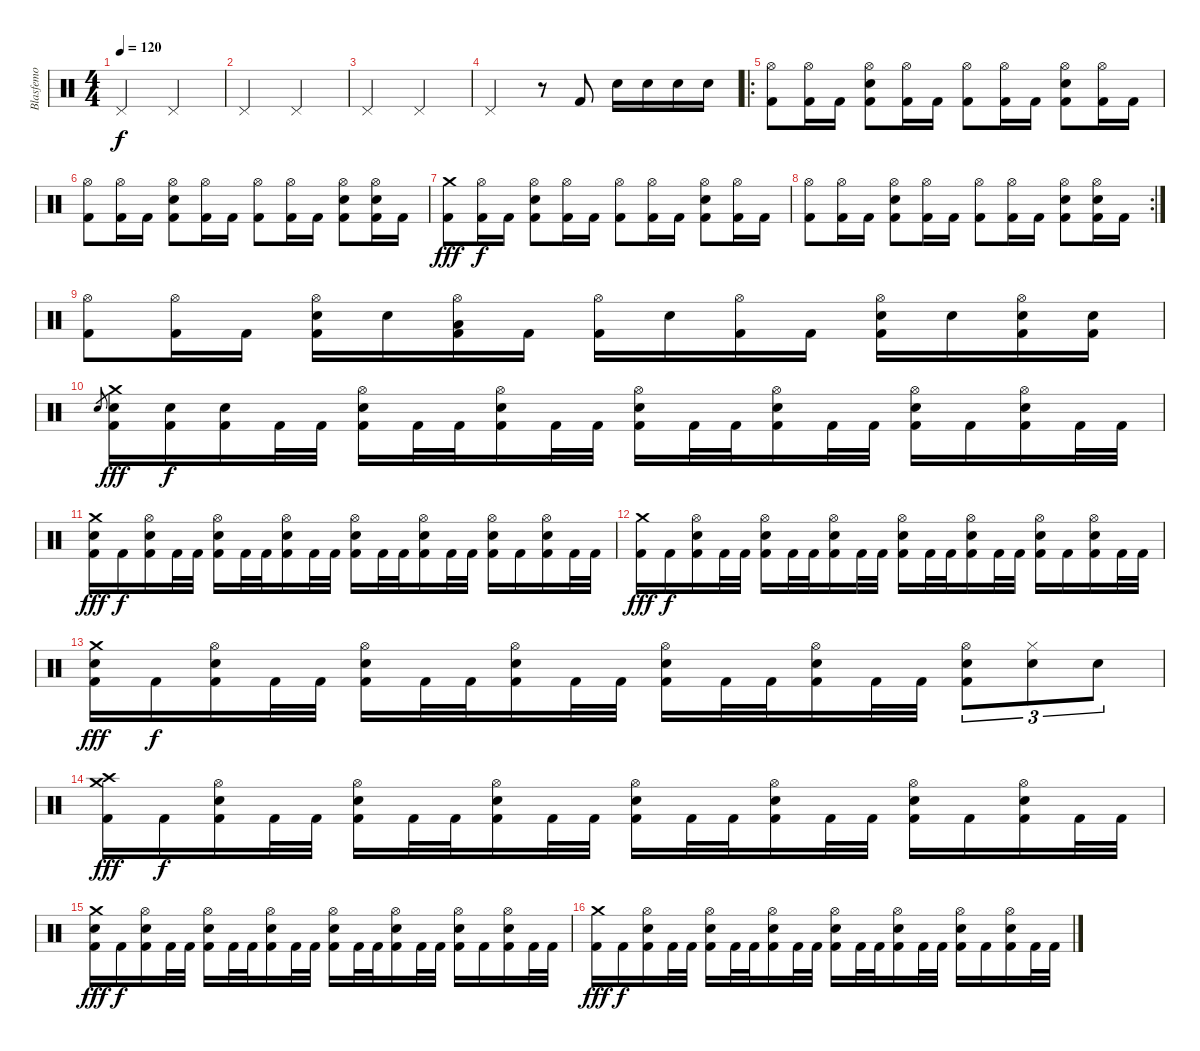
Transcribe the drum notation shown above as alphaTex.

\track ("Blasfemo" "Blasfemo") {instrument percussion}
\staff {score}
\articulation defaults
\ts (4 4)
\tempo 120
\clef neutral
\ks c "Pedal Hi-Hat (hit)".2{dy f} "Pedal Hi-Hat (hit)".2
|
"Pedal Hi-Hat (hit)".2 "Pedal Hi-Hat (hit)".2 |
"Pedal Hi-Hat (hit)".2 "Pedal Hi-Hat (hit)".2 |
"Pedal Hi-Hat (hit)".2 r.8 "Kick (hit) 2".8 "Electric Snare (hit)".16 "Electric Snare (hit)".16 "Electric Snare (hit)".16 "Electric Snare (hit)".16 |
\ro
("Hi-Hat (open)" "Kick (hit) 2").8 ("Hi-Hat (open)" "Kick (hit) 2").16 "Kick (hit) 2".16 ("Hi-Hat (open)" "Electric Snare (hit)" "Kick (hit) 2").8 ("Hi-Hat (open)" "Kick (hit) 2").16 "Kick (hit) 2".16 ("Hi-Hat (open)" "Kick (hit) 2").8 ("Hi-Hat (open)" "Kick (hit) 2").16 "Kick (hit) 2".16 ("Hi-Hat (open)" "Electric Snare (hit)" "Kick (hit) 2").8 ("Hi-Hat (open)" "Kick (hit) 2").16 "Kick (hit) 2".16 |
("Hi-Hat (open)" "Kick (hit) 2").8 ("Hi-Hat (open)" "Kick (hit) 2").16 "Kick (hit) 2".16 ("Hi-Hat (open)" "Electric Snare (hit)" "Kick (hit) 2").8 ("Hi-Hat (open)" "Kick (hit) 2").16 "Kick (hit) 2".16 ("Hi-Hat (open)" "Kick (hit) 2").8 ("Hi-Hat (open)" "Kick (hit) 2").16 "Kick (hit) 2".16 ("Hi-Hat (open)" "Electric Snare (hit)" "Kick (hit) 2").8 ("Hi-Hat (open)" "Electric Snare (hit)" "Kick (hit) 2").16 "Kick (hit) 2".16 |
("Crash medium (hit)" "Kick (hit) 2").8{dy fff} ("Hi-Hat (open)" "Kick (hit) 2").16{dy f} "Kick (hit) 2".16 ("Hi-Hat (open)" "Electric Snare (hit)" "Kick (hit) 2").8 ("Hi-Hat (open)" "Kick (hit) 2").16 "Kick (hit) 2".16 ("Hi-Hat (open)" "Kick (hit) 2").8 ("Hi-Hat (open)" "Kick (hit) 2").16 "Kick (hit) 2".16 ("Hi-Hat (open)" "Electric Snare (hit)" "Kick (hit) 2").8 ("Hi-Hat (open)" "Kick (hit) 2").16 "Kick (hit) 2".16 |
\rc 2
("Hi-Hat (open)" "Kick (hit) 2").8 ("Hi-Hat (open)" "Kick (hit) 2").16 "Kick (hit) 2".16 ("Hi-Hat (open)" "Electric Snare (hit)" "Kick (hit) 2").8 ("Hi-Hat (open)" "Kick (hit) 2").16 "Kick (hit) 2".16 ("Hi-Hat (open)" "Kick (hit) 2").8 ("Hi-Hat (open)" "Kick (hit) 2").16 "Kick (hit) 2".16 ("Hi-Hat (open)" "Electric Snare (hit)" "Kick (hit) 2").8 ("Hi-Hat (open)" "Electric Snare (hit)" "Kick (hit) 2").16 "Kick (hit) 2".16 |
("Hi-Hat (open)" "Kick (hit) 2").8 ("Hi-Hat (open)" "Kick (hit) 2").16 "Kick (hit) 2".16 ("Hi-Hat (open)" "Electric Snare (hit)" "Kick (hit) 2").16 "Electric Snare (hit)".16 ("Hi-Hat (open)" "Low Tom (hit)" "Kick (hit) 2").16 "Kick (hit) 2".16 ("Hi-Hat (open)" "Kick (hit) 2").16 "Electric Snare (hit)".16 ("Hi-Hat (open)" "Kick (hit) 2").16 "Kick (hit) 2".16 ("Hi-Hat (open)" "Electric Snare (hit)" "Kick (hit) 2").16 "Electric Snare (hit)".16 ("Hi-Hat (open)" "Electric Snare (hit)" "Kick (hit) 2").16 ("Electric Snare (hit)" "Kick (hit) 2").16 |
"Electric Snare (hit)".8{gr} ("Crash medium (hit)" "Electric Snare (hit)" "Kick (hit) 2").16{dy fff} ("Electric Snare (hit)" "Kick (hit) 2").16{dy f} ("Electric Snare (hit)" "Kick (hit) 2").16 "Kick (hit) 2".32 "Kick (hit) 2".32 ("Hi-Hat (open)" "Electric Snare (hit)" "Kick (hit) 2").16 "Kick (hit) 2".32 "Kick (hit) 2".32 ("Hi-Hat (open)" "Electric Snare (hit)" "Kick (hit) 2").16 "Kick (hit) 2".32 "Kick (hit) 2".32 ("Hi-Hat (open)" "Electric Snare (hit)" "Kick (hit) 2").16 "Kick (hit) 2".32 "Kick (hit) 2".32 ("Hi-Hat (open)" "Electric Snare (hit)" "Kick (hit) 2").16 "Kick (hit) 2".32 "Kick (hit) 2".32 ("Hi-Hat (open)" "Electric Snare (hit)" "Kick (hit) 2").16 "Kick (hit) 2".16 ("Hi-Hat (open)" "Electric Snare (hit)" "Kick (hit) 2").16 "Kick (hit) 2".32 "Kick (hit) 2".32 |
("Crash medium (hit)" "Electric Snare (hit)" "Kick (hit) 2").16{dy fff} "Kick (hit) 2".16{dy f} ("Hi-Hat (open)" "Electric Snare (hit)" "Kick (hit) 2").16 "Kick (hit) 2".32 "Kick (hit) 2".32 ("Hi-Hat (open)" "Electric Snare (hit)" "Kick (hit) 2").16 "Kick (hit) 2".32 "Kick (hit) 2".32 ("Hi-Hat (open)" "Electric Snare (hit)" "Kick (hit) 2").16 "Kick (hit) 2".32 "Kick (hit) 2".32 ("Hi-Hat (open)" "Electric Snare (hit)" "Kick (hit) 2").16 "Kick (hit) 2".32 "Kick (hit) 2".32 ("Hi-Hat (open)" "Electric Snare (hit)" "Kick (hit) 2").16 "Kick (hit) 2".32 "Kick (hit) 2".32 ("Hi-Hat (open)" "Electric Snare (hit)" "Kick (hit) 2").16 "Kick (hit) 2".16 ("Hi-Hat (open)" "Electric Snare (hit)" "Kick (hit) 2").16 "Kick (hit) 2".32 "Kick (hit) 2".32 |
("Crash medium (hit)" "Kick (hit) 2").16{dy fff} "Kick (hit) 2".16{dy f} ("Hi-Hat (open)" "Electric Snare (hit)" "Kick (hit) 2").16 "Kick (hit) 2".32 "Kick (hit) 2".32 ("Hi-Hat (open)" "Electric Snare (hit)" "Kick (hit) 2").16 "Kick (hit) 2".32 "Kick (hit) 2".32 ("Hi-Hat (open)" "Electric Snare (hit)" "Kick (hit) 2").16 "Kick (hit) 2".32 "Kick (hit) 2".32 ("Hi-Hat (open)" "Electric Snare (hit)" "Kick (hit) 2").16 "Kick (hit) 2".32 "Kick (hit) 2".32 ("Hi-Hat (open)" "Electric Snare (hit)" "Kick (hit) 2").16 "Kick (hit) 2".32 "Kick (hit) 2".32 ("Hi-Hat (open)" "Electric Snare (hit)" "Kick (hit) 2").16 "Kick (hit) 2".16 ("Hi-Hat (open)" "Electric Snare (hit)" "Kick (hit) 2").16 "Kick (hit) 2".32 "Kick (hit) 2".32 |
("Crash medium (hit)" "Electric Snare (hit)" "Kick (hit) 2").16{dy fff} "Kick (hit) 2".16{dy f} ("Hi-Hat (open)" "Electric Snare (hit)" "Kick (hit) 2").16 "Kick (hit) 2".32 "Kick (hit) 2".32 ("Hi-Hat (open)" "Electric Snare (hit)" "Kick (hit) 2").16 "Kick (hit) 2".32 "Kick (hit) 2".32 ("Hi-Hat (open)" "Electric Snare (hit)" "Kick (hit) 2").16 "Kick (hit) 2".32 "Kick (hit) 2".32 ("Hi-Hat (open)" "Electric Snare (hit)" "Kick (hit) 2").16 "Kick (hit) 2".32 "Kick (hit) 2".32 ("Hi-Hat (open)" "Electric Snare (hit)" "Kick (hit) 2").16 "Kick (hit) 2".32 "Kick (hit) 2".32 ("Hi-Hat (open)" "Electric Snare (hit)" "Kick (hit) 2").8{tu (3 2)} ("Hi-Hat (closed)" "Electric Snare (hit)").8{tu (3 2)} "Electric Snare (hit)".8{tu (3 2)} |
("Crash high (hit)" "Crash medium (hit)" "Kick (hit) 2").16{dy fff} "Kick (hit) 2".16{dy f} ("Hi-Hat (open)" "Electric Snare (hit)" "Kick (hit) 2").16 "Kick (hit) 2".32 "Kick (hit) 2".32 ("Hi-Hat (open)" "Electric Snare (hit)" "Kick (hit) 2").16 "Kick (hit) 2".32 "Kick (hit) 2".32 ("Hi-Hat (open)" "Electric Snare (hit)" "Kick (hit) 2").16 "Kick (hit) 2".32 "Kick (hit) 2".32 ("Hi-Hat (open)" "Electric Snare (hit)" "Kick (hit) 2").16 "Kick (hit) 2".32 "Kick (hit) 2".32 ("Hi-Hat (open)" "Electric Snare (hit)" "Kick (hit) 2").16 "Kick (hit) 2".32 "Kick (hit) 2".32 ("Hi-Hat (open)" "Electric Snare (hit)" "Kick (hit) 2").16 "Kick (hit) 2".16 ("Hi-Hat (open)" "Electric Snare (hit)" "Kick (hit) 2").16 "Kick (hit) 2".32 "Kick (hit) 2".32 |
("Crash medium (hit)" "Electric Snare (hit)" "Kick (hit) 2").16{dy fff} "Kick (hit) 2".16{dy f} ("Hi-Hat (open)" "Electric Snare (hit)" "Kick (hit) 2").16 "Kick (hit) 2".32 "Kick (hit) 2".32 ("Hi-Hat (open)" "Electric Snare (hit)" "Kick (hit) 2").16 "Kick (hit) 2".32 "Kick (hit) 2".32 ("Hi-Hat (open)" "Electric Snare (hit)" "Kick (hit) 2").16 "Kick (hit) 2".32 "Kick (hit) 2".32 ("Hi-Hat (open)" "Electric Snare (hit)" "Kick (hit) 2").16 "Kick (hit) 2".32 "Kick (hit) 2".32 ("Hi-Hat (open)" "Electric Snare (hit)" "Kick (hit) 2").16 "Kick (hit) 2".32 "Kick (hit) 2".32 ("Hi-Hat (open)" "Electric Snare (hit)" "Kick (hit) 2").16 "Kick (hit) 2".16 ("Hi-Hat (open)" "Electric Snare (hit)" "Kick (hit) 2").16 "Kick (hit) 2".32 "Kick (hit) 2".32 |
("Crash medium (hit)" "Kick (hit) 2").16{dy fff} "Kick (hit) 2".16{dy f} ("Hi-Hat (open)" "Electric Snare (hit)" "Kick (hit) 2").16 "Kick (hit) 2".32 "Kick (hit) 2".32 ("Hi-Hat (open)" "Electric Snare (hit)" "Kick (hit) 2").16 "Kick (hit) 2".32 "Kick (hit) 2".32 ("Hi-Hat (open)" "Electric Snare (hit)" "Kick (hit) 2").16 "Kick (hit) 2".32 "Kick (hit) 2".32 ("Hi-Hat (open)" "Electric Snare (hit)" "Kick (hit) 2").16 "Kick (hit) 2".32 "Kick (hit) 2".32 ("Hi-Hat (open)" "Electric Snare (hit)" "Kick (hit) 2").16 "Kick (hit) 2".32 "Kick (hit) 2".32 ("Hi-Hat (open)" "Electric Snare (hit)" "Kick (hit) 2").16 "Kick (hit) 2".16 ("Hi-Hat (open)" "Electric Snare (hit)" "Kick (hit) 2").16 "Kick (hit) 2".32 "Kick (hit) 2".32
